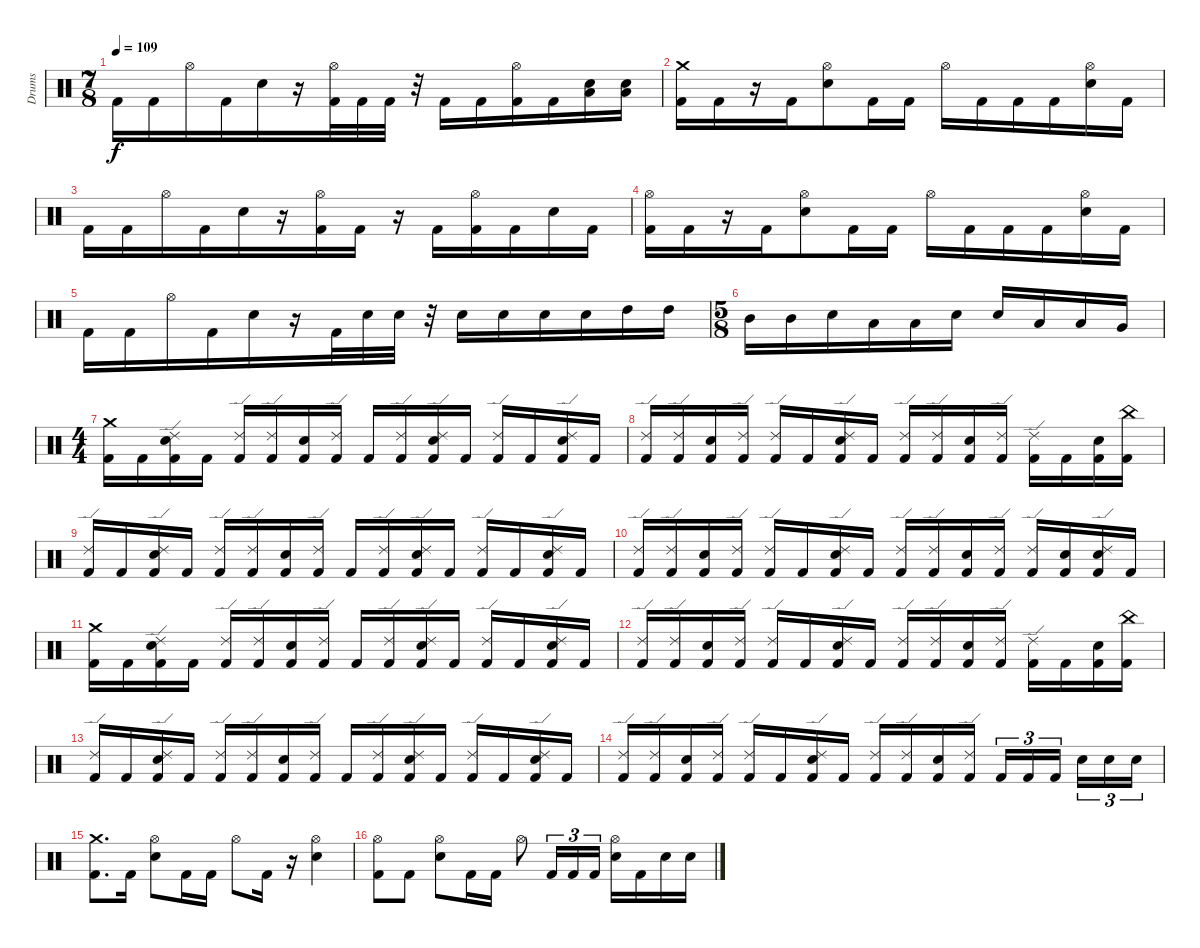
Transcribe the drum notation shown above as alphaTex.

\track ("Drums" "Drums") {instrument percussion}
\staff {score}
\articulation defaults
\ts (7 8)
\tempo 109
\clef neutral
\ks c "Kick (hit) 2".16{dy f} "Kick (hit) 2".16 "Hi-Hat (open)".16 "Kick (hit) 2".16 "Electric Snare (hit)".16
r.16 ("Kick (hit) 2" "Hi-Hat (open)").32 "Kick (hit) 2".32 "Kick (hit) 2".32 r.32 "Kick (hit) 2".16 "Kick (hit) 2".16 ("Kick (hit) 2" "Hi-Hat (open)").16 "Kick (hit) 2".16 ("Low Floor Tom (hit)" "Electric Snare (hit)").16 ("Low Floor Tom (hit)" "Electric Snare (hit)").16 |
("Crash medium (hit)" "Kick (hit) 2").16 "Kick (hit) 2".16 r.16 "Kick (hit) 2".16 ("Hi-Hat (open)" "Electric Snare (hit)").8 "Kick (hit) 2".16 "Kick (hit) 2".16 "Hi-Hat (open)".16 "Kick (hit) 2".16 "Kick (hit) 2".16 "Kick (hit) 2".16 ("Hi-Hat (open)" "Electric Snare (hit)").16 "Kick (hit) 2".16 |
"Kick (hit) 2".16 "Kick (hit) 2".16 "Hi-Hat (open)".16 "Kick (hit) 2".16 "Electric Snare (hit)".16 r.16 ("Kick (hit) 2" "Hi-Hat (open)").16 "Kick (hit) 2".16 r.16 "Kick (hit) 2".16 ("Kick (hit) 2" "Hi-Hat (open)").16 "Kick (hit) 2".16 "Electric Snare (hit)".16 "Kick (hit) 2".16 |
("Hi-Hat (open)" "Kick (hit) 2").16 "Kick (hit) 2".16 r.16 "Kick (hit) 2".16 ("Hi-Hat (open)" "Electric Snare (hit)").8 "Kick (hit) 2".16 "Kick (hit) 2".16 "Hi-Hat (open)".16 "Kick (hit) 2".16 "Kick (hit) 2".16 "Kick (hit) 2".16 ("Hi-Hat (open)" "Electric Snare (hit)").16 "Kick (hit) 2".16 |
"Kick (hit) 2".16 "Kick (hit) 2".16 "Hi-Hat (open)".16 "Kick (hit) 2".16 "Electric Snare (hit)".16 r.16 "Kick (hit) 2".32 "Electric Snare (hit)".32 "Electric Snare (hit)".32 r.32 "Electric Snare (hit)".16 "Electric Snare (hit)".16 "Electric Snare (hit)".16 "Electric Snare (hit)".16 "High Tom (hit)".16 "High Tom (hit)".16 |
\ts (5 8)
"Mid Tom (hit)".16 "Mid Tom (hit)".16 "Electric Snare (hit)".16 "Low Tom (hit)".16 "Low Tom (hit)".16 "Electric Snare (hit)".16 "Electric Snare (hit)".16 "Low Tom (hit)".16 "Low Tom (hit)".16 "Very Low Tom (hit)".16 |
\ts (4 4)
("Crash medium (hit)" "Kick (hit) 2").16 "Kick (hit) 2".16 ("Ride (edge) 2" "Electric Snare (hit)" "Kick (hit) 2").16 "Kick (hit) 2".16 ("Ride (edge) 2" "Kick (hit) 2").16 ("Ride (edge) 2" "Kick (hit) 2").16 ("Electric Snare (hit)" "Kick (hit) 2").16 ("Ride (edge) 2" "Kick (hit) 2").16 "Kick (hit) 2".16 ("Ride (edge) 2" "Kick (hit) 2").16 ("Ride (edge) 2" "Electric Snare (hit)" "Kick (hit) 2").16 "Kick (hit) 2".16 ("Ride (edge) 2" "Kick (hit) 2").16 "Kick (hit) 2".16 ("Ride (edge) 2" "Electric Snare (hit)" "Kick (hit) 2").16 "Kick (hit) 2".16 |
("Ride (edge) 2" "Kick (hit) 2").16 ("Ride (edge) 2" "Kick (hit) 2").16 ("Electric Snare (hit)" "Kick (hit) 2").16 ("Ride (edge) 2" "Kick (hit) 2").16 ("Ride (edge) 2" "Kick (hit) 2").16 "Kick (hit) 2".16 ("Ride (edge) 2" "Electric Snare (hit)" "Kick (hit) 2").16 "Kick (hit) 2".16 ("Ride (edge) 2" "Kick (hit) 2").16 ("Ride (edge) 2" "Kick (hit) 2").16 ("Electric Snare (hit)" "Kick (hit) 2").16 ("Ride (edge) 2" "Kick (hit) 2").16 ("Ride (edge) 2" "Kick (hit) 2").16 "Kick (hit) 2".16 ("Electric Snare (hit)" "Kick (hit) 2").16 ("China (hit)" "Kick (hit) 2").16 |
("Ride (edge) 2" "Kick (hit) 2").16 "Kick (hit) 2".16 ("Ride (edge) 2" "Electric Snare (hit)" "Kick (hit) 2").16 "Kick (hit) 2".16 ("Ride (edge) 2" "Kick (hit) 2").16 ("Ride (edge) 2" "Kick (hit) 2").16 ("Electric Snare (hit)" "Kick (hit) 2").16 ("Ride (edge) 2" "Kick (hit) 2").16 "Kick (hit) 2".16 ("Ride (edge) 2" "Kick (hit) 2").16 ("Ride (edge) 2" "Electric Snare (hit)" "Kick (hit) 2").16 "Kick (hit) 2".16 ("Ride (edge) 2" "Kick (hit) 2").16 "Kick (hit) 2".16 ("Ride (edge) 2" "Electric Snare (hit)" "Kick (hit) 2").16 "Kick (hit) 2".16 |
("Ride (edge) 2" "Kick (hit) 2").16 ("Ride (edge) 2" "Kick (hit) 2").16 ("Electric Snare (hit)" "Kick (hit) 2").16 ("Ride (edge) 2" "Kick (hit) 2").16 ("Ride (edge) 2" "Kick (hit) 2").16 "Kick (hit) 2".16 ("Ride (edge) 2" "Electric Snare (hit)" "Kick (hit) 2").16 "Kick (hit) 2".16 ("Ride (edge) 2" "Kick (hit) 2").16 ("Ride (edge) 2" "Kick (hit) 2").16 ("Electric Snare (hit)" "Kick (hit) 2").16 ("Ride (edge) 2" "Kick (hit) 2").16 ("Ride (edge) 2" "Kick (hit) 2").16 ("Electric Snare (hit)" "Kick (hit) 2").16 ("Ride (edge) 2" "Electric Snare (hit)" "Kick (hit) 2").16 "Kick (hit) 2".16 |
("Crash medium (hit)" "Kick (hit) 2").16 "Kick (hit) 2".16 ("Ride (edge) 2" "Electric Snare (hit)" "Kick (hit) 2").16 "Kick (hit) 2".16 ("Ride (edge) 2" "Kick (hit) 2").16 ("Ride (edge) 2" "Kick (hit) 2").16 ("Electric Snare (hit)" "Kick (hit) 2").16 ("Ride (edge) 2" "Kick (hit) 2").16 "Kick (hit) 2".16 ("Ride (edge) 2" "Kick (hit) 2").16 ("Ride (edge) 2" "Electric Snare (hit)" "Kick (hit) 2").16 "Kick (hit) 2".16 ("Ride (edge) 2" "Kick (hit) 2").16 "Kick (hit) 2".16 ("Ride (edge) 2" "Electric Snare (hit)" "Kick (hit) 2").16 "Kick (hit) 2".16 |
("Ride (edge) 2" "Kick (hit) 2").16 ("Ride (edge) 2" "Kick (hit) 2").16 ("Electric Snare (hit)" "Kick (hit) 2").16 ("Ride (edge) 2" "Kick (hit) 2").16 ("Ride (edge) 2" "Kick (hit) 2").16 "Kick (hit) 2".16 ("Ride (edge) 2" "Electric Snare (hit)" "Kick (hit) 2").16 "Kick (hit) 2".16 ("Ride (edge) 2" "Kick (hit) 2").16 ("Ride (edge) 2" "Kick (hit) 2").16 ("Electric Snare (hit)" "Kick (hit) 2").16 ("Ride (edge) 2" "Kick (hit) 2").16 ("Ride (edge) 2" "Kick (hit) 2").16 "Kick (hit) 2".16 ("Electric Snare (hit)" "Kick (hit) 2").16 ("China (hit)" "Kick (hit) 2").16 |
("Ride (edge) 2" "Kick (hit) 2").16 "Kick (hit) 2".16 ("Ride (edge) 2" "Electric Snare (hit)" "Kick (hit) 2").16 "Kick (hit) 2".16 ("Ride (edge) 2" "Kick (hit) 2").16 ("Ride (edge) 2" "Kick (hit) 2").16 ("Electric Snare (hit)" "Kick (hit) 2").16 ("Ride (edge) 2" "Kick (hit) 2").16 "Kick (hit) 2".16 ("Ride (edge) 2" "Kick (hit) 2").16 ("Ride (edge) 2" "Electric Snare (hit)" "Kick (hit) 2").16 "Kick (hit) 2".16 ("Ride (edge) 2" "Kick (hit) 2").16 "Kick (hit) 2".16 ("Ride (edge) 2" "Electric Snare (hit)" "Kick (hit) 2").16 "Kick (hit) 2".16 |
("Ride (edge) 2" "Kick (hit) 2").16 ("Ride (edge) 2" "Kick (hit) 2").16 ("Electric Snare (hit)" "Kick (hit) 2").16 ("Ride (edge) 2" "Kick (hit) 2").16 ("Ride (edge) 2" "Kick (hit) 2").16 "Kick (hit) 2".16 ("Ride (edge) 2" "Electric Snare (hit)" "Kick (hit) 2").16 "Kick (hit) 2".16 ("Ride (edge) 2" "Kick (hit) 2").16 ("Ride (edge) 2" "Kick (hit) 2").16 ("Electric Snare (hit)" "Kick (hit) 2").16 ("Ride (edge) 2" "Kick (hit) 2").16 "Kick (hit) 2".16{tu (3 2)} "Kick (hit) 2".16{tu (3 2)} "Kick (hit) 2".16{tu (3 2)} "Electric Snare (hit)".16{tu (3 2)} "Electric Snare (hit)".16{tu (3 2)} "Electric Snare (hit)".16{tu (3 2)} |
("Kick (hit) 2" "Crash medium (hit)").8{d} "Kick (hit) 2".16 ("Electric Snare (hit)" "Hi-Hat (open)").8 "Kick (hit) 2".16 "Kick (hit) 2".16 "Hi-Hat (open)".8 "Kick (hit) 2".16 r.16 ("Electric Snare (hit)" "Hi-Hat (open)").4 |
("Kick (hit) 2" "Hi-Hat (open)").8 "Kick (hit) 2".8 ("Electric Snare (hit)" "Hi-Hat (open)").8 "Kick (hit) 2".16 "Kick (hit) 2".16 "Hi-Hat (open)".8 "Kick (hit) 2".16{tu (3 2)} "Kick (hit) 2".16{tu (3 2)} "Kick (hit) 2".16{tu (3 2)} ("Electric Snare (hit)" "Hi-Hat (open)").16 "Kick (hit) 2".16 "Electric Snare (hit)".16 "Electric Snare (hit)".16
